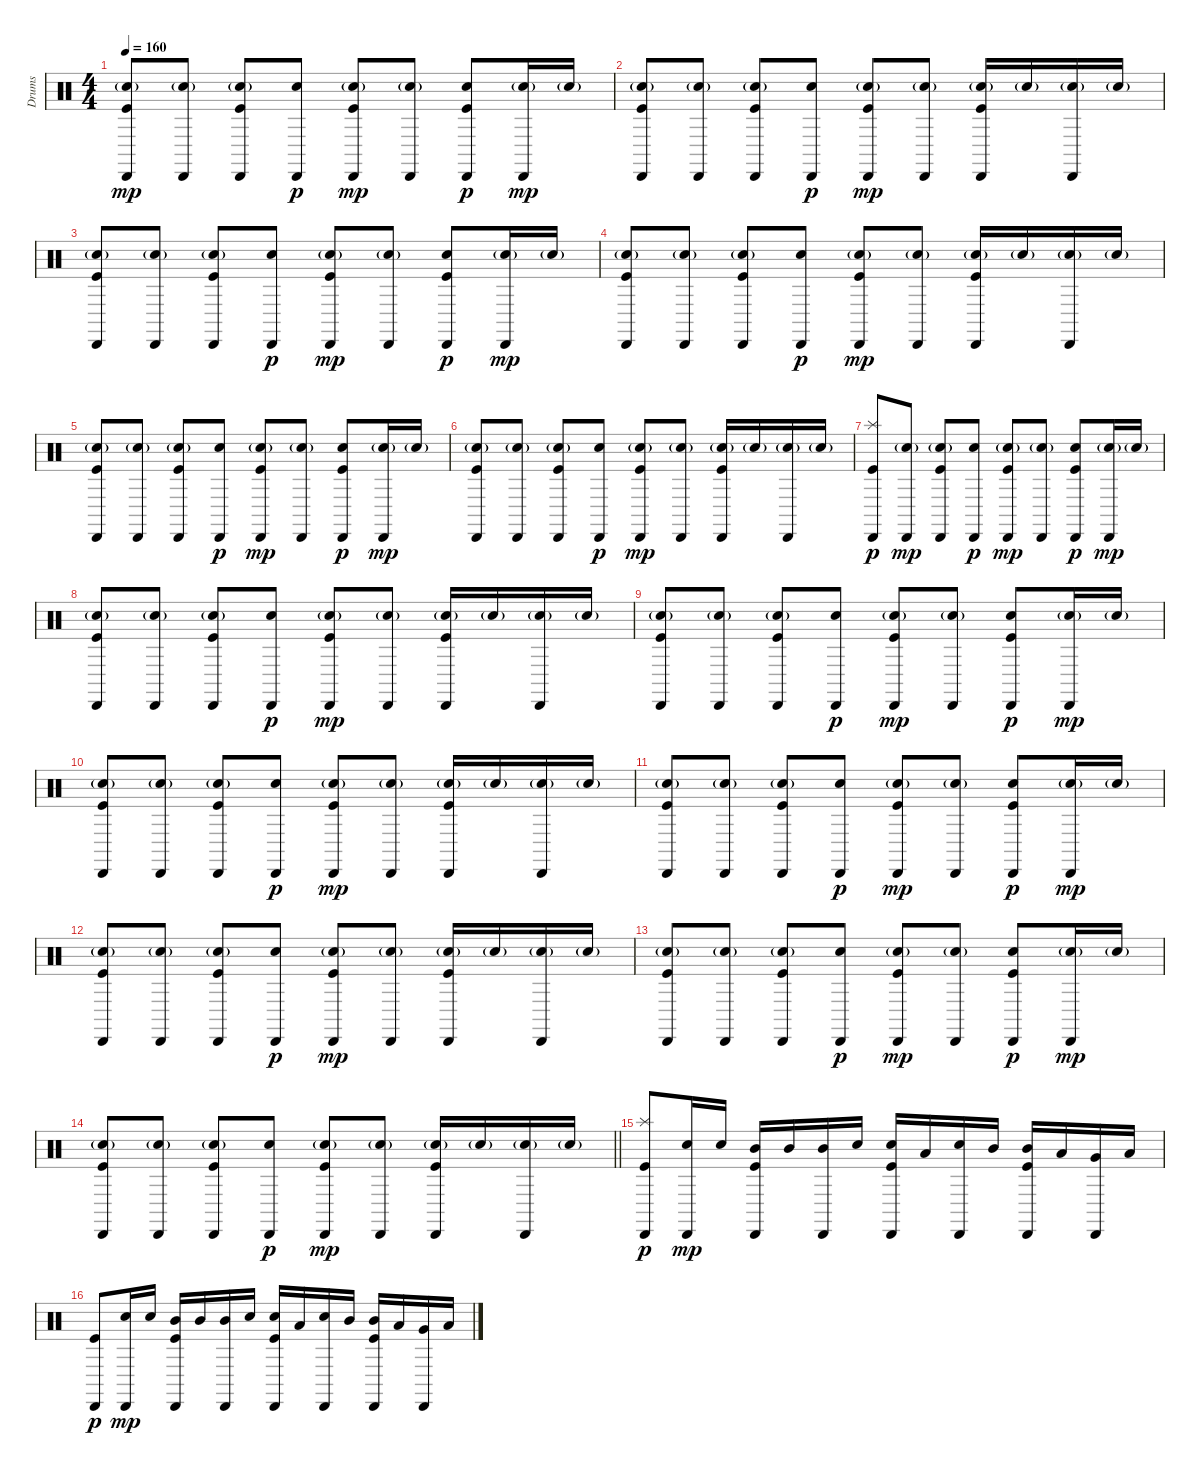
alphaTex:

\track ("Drums" "Drums") {instrument percussion}
\staff {score}
\articulation defaults
\ts (4 4)
\tempo 160
\clef neutral
\ks c
("Cabasa (hit)" "Electric Snare (hit)"{g} "Kick (hit)").8{dy mp} ("Cabasa (hit)" "Electric Snare (hit)"{g}).8 ("Cabasa (hit)" "Electric Snare (hit)"{g} "Kick (hit)").8 ("Cabasa (hit)" "Electric Snare (hit)").8{dy p} ("Cabasa (hit)" "Electric Snare (hit)"{g} "Kick (hit)").8{dy mp} ("Cabasa (hit)" "Electric Snare (hit)"{g}).8 ("Cabasa (hit)" "Electric Snare (hit)" "Kick (hit)").8{dy p} ("Cabasa (hit)" "Electric Snare (hit)"{g}).16{dy mp} "Electric Snare (hit)"{g}.16 |
("Cabasa (hit)" "Electric Snare (hit)"{g} "Kick (hit)").8 ("Cabasa (hit)" "Electric Snare (hit)"{g}).8 ("Cabasa (hit)" "Electric Snare (hit)"{g} "Kick (hit)").8 ("Cabasa (hit)" "Electric Snare (hit)").8{dy p} ("Cabasa (hit)" "Electric Snare (hit)"{g} "Kick (hit)").8{dy mp} ("Cabasa (hit)" "Electric Snare (hit)"{g}).8 ("Cabasa (hit)" "Electric Snare (hit)"{g} "Kick (hit)").16 "Electric Snare (hit)"{g}.16 ("Cabasa (hit)" "Electric Snare (hit)"{g}).16 "Electric Snare (hit)"{g}.16 |
("Cabasa (hit)" "Electric Snare (hit)"{g} "Kick (hit)").8 ("Cabasa (hit)" "Electric Snare (hit)"{g}).8 ("Cabasa (hit)" "Electric Snare (hit)"{g} "Kick (hit)").8 ("Cabasa (hit)" "Electric Snare (hit)").8{dy p} ("Cabasa (hit)" "Electric Snare (hit)"{g} "Kick (hit)").8{dy mp} ("Cabasa (hit)" "Electric Snare (hit)"{g}).8 ("Cabasa (hit)" "Electric Snare (hit)" "Kick (hit)").8{dy p} ("Cabasa (hit)" "Electric Snare (hit)"{g}).16{dy mp} "Electric Snare (hit)"{g}.16 |
("Cabasa (hit)" "Electric Snare (hit)"{g} "Kick (hit)").8 ("Cabasa (hit)" "Electric Snare (hit)"{g}).8 ("Cabasa (hit)" "Electric Snare (hit)"{g} "Kick (hit)").8 ("Cabasa (hit)" "Electric Snare (hit)").8{dy p} ("Cabasa (hit)" "Electric Snare (hit)"{g} "Kick (hit)").8{dy mp} ("Cabasa (hit)" "Electric Snare (hit)"{g}).8 ("Cabasa (hit)" "Electric Snare (hit)"{g} "Kick (hit)").16 "Electric Snare (hit)"{g}.16 ("Cabasa (hit)" "Electric Snare (hit)"{g}).16 "Electric Snare (hit)"{g}.16 |
("Cabasa (hit)" "Electric Snare (hit)"{g} "Kick (hit)").8 ("Cabasa (hit)" "Electric Snare (hit)"{g}).8 ("Cabasa (hit)" "Electric Snare (hit)"{g} "Kick (hit)").8 ("Cabasa (hit)" "Electric Snare (hit)").8{dy p} ("Cabasa (hit)" "Electric Snare (hit)"{g} "Kick (hit)").8{dy mp} ("Cabasa (hit)" "Electric Snare (hit)"{g}).8 ("Cabasa (hit)" "Electric Snare (hit)" "Kick (hit)").8{dy p} ("Cabasa (hit)" "Electric Snare (hit)"{g}).16{dy mp} "Electric Snare (hit)"{g}.16 |
("Cabasa (hit)" "Electric Snare (hit)"{g} "Kick (hit)").8 ("Cabasa (hit)" "Electric Snare (hit)"{g}).8 ("Cabasa (hit)" "Electric Snare (hit)"{g} "Kick (hit)").8 ("Cabasa (hit)" "Electric Snare (hit)").8{dy p} ("Cabasa (hit)" "Electric Snare (hit)"{g} "Kick (hit)").8{dy mp} ("Cabasa (hit)" "Electric Snare (hit)"{g}).8 ("Cabasa (hit)" "Electric Snare (hit)"{g} "Kick (hit)").16 "Electric Snare (hit)"{g}.16 ("Cabasa (hit)" "Electric Snare (hit)"{g}).16 "Electric Snare (hit)"{g}.16 |
("Cabasa (hit)" "Splash (hit)" "Kick (hit)").8{dy p} ("Cabasa (hit)" "Electric Snare (hit)"{g}).8{dy mp} ("Cabasa (hit)" "Electric Snare (hit)"{g} "Kick (hit)").8 ("Cabasa (hit)" "Electric Snare (hit)").8{dy p} ("Cabasa (hit)" "Electric Snare (hit)"{g} "Kick (hit)").8{dy mp} ("Cabasa (hit)" "Electric Snare (hit)"{g}).8 ("Cabasa (hit)" "Electric Snare (hit)" "Kick (hit)").8{dy p} ("Cabasa (hit)" "Electric Snare (hit)"{g}).16{dy mp} "Electric Snare (hit)"{g}.16 |
("Cabasa (hit)" "Electric Snare (hit)"{g} "Kick (hit)").8 ("Cabasa (hit)" "Electric Snare (hit)"{g}).8 ("Cabasa (hit)" "Electric Snare (hit)"{g} "Kick (hit)").8 ("Cabasa (hit)" "Electric Snare (hit)").8{dy p} ("Cabasa (hit)" "Electric Snare (hit)"{g} "Kick (hit)").8{dy mp} ("Cabasa (hit)" "Electric Snare (hit)"{g}).8 ("Cabasa (hit)" "Electric Snare (hit)"{g} "Kick (hit)").16 "Electric Snare (hit)"{g}.16 ("Cabasa (hit)" "Electric Snare (hit)"{g}).16 "Electric Snare (hit)"{g}.16 |
("Cabasa (hit)" "Electric Snare (hit)"{g} "Kick (hit)").8 ("Cabasa (hit)" "Electric Snare (hit)"{g}).8 ("Cabasa (hit)" "Electric Snare (hit)"{g} "Kick (hit)").8 ("Cabasa (hit)" "Electric Snare (hit)").8{dy p} ("Cabasa (hit)" "Electric Snare (hit)"{g} "Kick (hit)").8{dy mp} ("Cabasa (hit)" "Electric Snare (hit)"{g}).8 ("Cabasa (hit)" "Electric Snare (hit)" "Kick (hit)").8{dy p} ("Cabasa (hit)" "Electric Snare (hit)"{g}).16{dy mp} "Electric Snare (hit)"{g}.16 |
("Cabasa (hit)" "Electric Snare (hit)"{g} "Kick (hit)").8 ("Cabasa (hit)" "Electric Snare (hit)"{g}).8 ("Cabasa (hit)" "Electric Snare (hit)"{g} "Kick (hit)").8 ("Cabasa (hit)" "Electric Snare (hit)").8{dy p} ("Cabasa (hit)" "Electric Snare (hit)"{g} "Kick (hit)").8{dy mp} ("Cabasa (hit)" "Electric Snare (hit)"{g}).8 ("Cabasa (hit)" "Electric Snare (hit)"{g} "Kick (hit)").16 "Electric Snare (hit)"{g}.16 ("Cabasa (hit)" "Electric Snare (hit)"{g}).16 "Electric Snare (hit)"{g}.16 |
("Cabasa (hit)" "Electric Snare (hit)"{g} "Kick (hit)").8 ("Cabasa (hit)" "Electric Snare (hit)"{g}).8 ("Cabasa (hit)" "Electric Snare (hit)"{g} "Kick (hit)").8 ("Cabasa (hit)" "Electric Snare (hit)").8{dy p} ("Cabasa (hit)" "Electric Snare (hit)"{g} "Kick (hit)").8{dy mp} ("Cabasa (hit)" "Electric Snare (hit)"{g}).8 ("Cabasa (hit)" "Electric Snare (hit)" "Kick (hit)").8{dy p} ("Cabasa (hit)" "Electric Snare (hit)"{g}).16{dy mp} "Electric Snare (hit)"{g}.16 |
("Cabasa (hit)" "Electric Snare (hit)"{g} "Kick (hit)").8 ("Cabasa (hit)" "Electric Snare (hit)"{g}).8 ("Cabasa (hit)" "Electric Snare (hit)"{g} "Kick (hit)").8 ("Cabasa (hit)" "Electric Snare (hit)").8{dy p} ("Cabasa (hit)" "Electric Snare (hit)"{g} "Kick (hit)").8{dy mp} ("Cabasa (hit)" "Electric Snare (hit)"{g}).8 ("Cabasa (hit)" "Electric Snare (hit)"{g} "Kick (hit)").16 "Electric Snare (hit)"{g}.16 ("Cabasa (hit)" "Electric Snare (hit)"{g}).16 "Electric Snare (hit)"{g}.16 |
("Cabasa (hit)" "Electric Snare (hit)"{g} "Kick (hit)").8 ("Cabasa (hit)" "Electric Snare (hit)"{g}).8 ("Cabasa (hit)" "Electric Snare (hit)"{g} "Kick (hit)").8 ("Cabasa (hit)" "Electric Snare (hit)").8{dy p} ("Cabasa (hit)" "Electric Snare (hit)"{g} "Kick (hit)").8{dy mp} ("Cabasa (hit)" "Electric Snare (hit)"{g}).8 ("Cabasa (hit)" "Electric Snare (hit)" "Kick (hit)").8{dy p} ("Cabasa (hit)" "Electric Snare (hit)"{g}).16{dy mp} "Electric Snare (hit)"{g}.16 |
\barLineRight lightlight
("Cabasa (hit)" "Electric Snare (hit)"{g} "Kick (hit)").8 ("Cabasa (hit)" "Electric Snare (hit)"{g}).8 ("Cabasa (hit)" "Electric Snare (hit)"{g} "Kick (hit)").8 ("Cabasa (hit)" "Electric Snare (hit)").8{dy p} ("Cabasa (hit)" "Electric Snare (hit)"{g} "Kick (hit)").8{dy mp} ("Cabasa (hit)" "Electric Snare (hit)"{g}).8 ("Cabasa (hit)" "Electric Snare (hit)"{g} "Kick (hit)").16 "Electric Snare (hit)"{g}.16 ("Cabasa (hit)" "Electric Snare (hit)"{g}).16 "Electric Snare (hit)"{g}.16 |
("Cabasa (hit)" "Splash (hit)" "Kick (hit)").8{dy p} ("Cabasa (hit)" "Electric Snare (hit)").16{dy mp} "Electric Snare (hit)".16 ("Cabasa (hit)" "Mid Tom (hit)" "Kick (hit)").16 "Mid Tom (hit)".16 ("Cabasa (hit)" "Mid Tom (hit)").16 "Electric Snare (hit)".16 ("Cabasa (hit)" "Electric Snare (hit)" "Kick (hit)").16 "Low Tom (hit)".16 ("Cabasa (hit)" "Electric Snare (hit)").16 "Mid Tom (hit)".16 ("Cabasa (hit)" "Mid Tom (hit)" "Kick (hit)").16 "Low Tom (hit)".16 ("Cabasa (hit)" "Very Low Tom (hit)").16 "Low Tom (hit)".16 |
("Cabasa (hit)" "Kick (hit)").8{dy p} ("Cabasa (hit)" "Electric Snare (hit)").16{dy mp} "Electric Snare (hit)".16 ("Cabasa (hit)" "Mid Tom (hit)" "Kick (hit)").16 "Mid Tom (hit)".16 ("Cabasa (hit)" "Mid Tom (hit)").16 "Electric Snare (hit)".16 ("Cabasa (hit)" "Electric Snare (hit)" "Kick (hit)").16 "Low Tom (hit)".16 ("Cabasa (hit)" "Electric Snare (hit)").16 "Mid Tom (hit)".16 ("Cabasa (hit)" "Mid Tom (hit)" "Kick (hit)").16 "Low Tom (hit)".16 ("Cabasa (hit)" "Very Low Tom (hit)").16 "Low Tom (hit)".16
